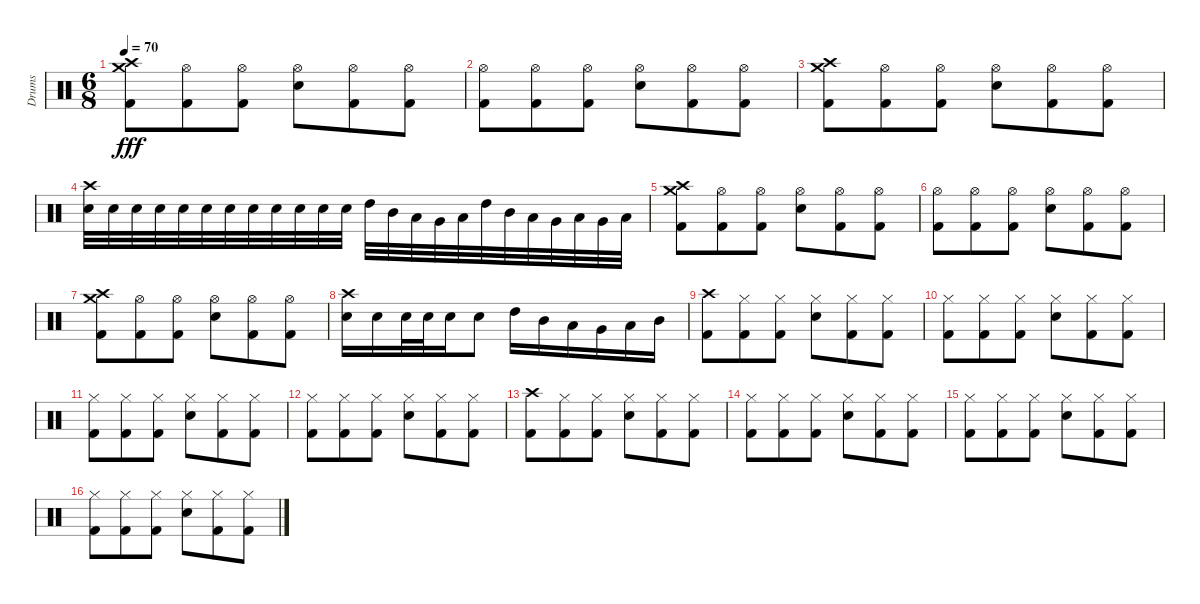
\track ("Drums" "Drums") {instrument percussion}
\staff {score}
\articulation defaults
\ts (6 8)
\tempo 70
\clef neutral
\ks c
("Crash high (hit)" "Crash medium (hit)" "Kick (hit) 2").8{dy fff} ("Hi-Hat (open)" "Kick (hit) 2").8 ("Hi-Hat (open)" "Kick (hit) 2").8 ("Hi-Hat (open)" "Electric Snare (hit)").8 ("Hi-Hat (open)" "Kick (hit) 2").8 ("Hi-Hat (open)" "Kick (hit) 2").8 |
("Hi-Hat (open)" "Kick (hit) 2").8 ("Hi-Hat (open)" "Kick (hit) 2").8 ("Hi-Hat (open)" "Kick (hit) 2").8 ("Hi-Hat (open)" "Electric Snare (hit)").8 ("Hi-Hat (open)" "Kick (hit) 2").8 ("Hi-Hat (open)" "Kick (hit) 2").8 |
("Crash high (hit)" "Crash medium (hit)" "Kick (hit) 2").8 ("Hi-Hat (open)" "Kick (hit) 2").8 ("Hi-Hat (open)" "Kick (hit) 2").8 ("Hi-Hat (open)" "Electric Snare (hit)").8 ("Hi-Hat (open)" "Kick (hit) 2").8 ("Hi-Hat (open)" "Kick (hit) 2").8 |
("Crash high (hit)" "Electric Snare (hit)").32 "Electric Snare (hit)".32 "Electric Snare (hit)".32 "Electric Snare (hit)".32 "Electric Snare (hit)".32 "Electric Snare (hit)".32 "Electric Snare (hit)".32 "Electric Snare (hit)".32 "Electric Snare (hit)".32 "Electric Snare (hit)".32 "Electric Snare (hit)".32 "Electric Snare (hit)".32 "High Tom (hit)".32 "Mid Tom (hit)".32 "Low Tom (hit)".32 "Very Low Tom (hit)".32 "Low Floor Tom (hit)".32 "High Tom (hit)".32 "Mid Tom (hit)".32 "Low Tom (hit)".32 "Very Low Tom (hit)".32 "Low Floor Tom (hit)".32 "Very Low Tom (hit)".32 "Low Tom (hit)".32 |
("Crash high (hit)" "Crash medium (hit)" "Kick (hit) 2").8 ("Hi-Hat (open)" "Kick (hit) 2").8 ("Hi-Hat (open)" "Kick (hit) 2").8 ("Hi-Hat (open)" "Electric Snare (hit)").8 ("Hi-Hat (open)" "Kick (hit) 2").8 ("Hi-Hat (open)" "Kick (hit) 2").8 |
("Hi-Hat (open)" "Kick (hit) 2").8 ("Hi-Hat (open)" "Kick (hit) 2").8 ("Hi-Hat (open)" "Kick (hit) 2").8 ("Hi-Hat (open)" "Electric Snare (hit)").8 ("Hi-Hat (open)" "Kick (hit) 2").8 ("Hi-Hat (open)" "Kick (hit) 2").8 |
("Crash high (hit)" "Crash medium (hit)" "Kick (hit) 2").8 ("Hi-Hat (open)" "Kick (hit) 2").8 ("Hi-Hat (open)" "Kick (hit) 2").8 ("Hi-Hat (open)" "Electric Snare (hit)").8 ("Hi-Hat (open)" "Kick (hit) 2").8 ("Hi-Hat (open)" "Kick (hit) 2").8 |
("Crash high (hit)" "Electric Snare (hit)").16 "Electric Snare (hit)".16 "Electric Snare (hit)".32 "Electric Snare (hit)".32 "Electric Snare (hit)".16 "Electric Snare (hit)".8 "High Tom (hit)".16 "Mid Tom (hit)".16 "Low Tom (hit)".16 "Very Low Tom (hit)".16 "Low Tom (hit)".16 "Mid Tom (hit)".16 |
("Crash high (hit)" "Kick (hit) 2").8 ("Hi-Hat (closed)" "Kick (hit) 2").8 ("Hi-Hat (closed)" "Kick (hit) 2").8 ("Hi-Hat (closed)" "Electric Snare (hit)").8 ("Hi-Hat (closed)" "Kick (hit) 2").8 ("Hi-Hat (closed)" "Kick (hit) 2").8 |
("Hi-Hat (closed)" "Kick (hit) 2").8 ("Hi-Hat (closed)" "Kick (hit) 2").8 ("Hi-Hat (closed)" "Kick (hit) 2").8 ("Hi-Hat (closed)" "Electric Snare (hit)").8 ("Hi-Hat (closed)" "Kick (hit) 2").8 ("Hi-Hat (closed)" "Kick (hit) 2").8 |
("Hi-Hat (closed)" "Kick (hit) 2").8 ("Hi-Hat (closed)" "Kick (hit) 2").8 ("Hi-Hat (closed)" "Kick (hit) 2").8 ("Hi-Hat (closed)" "Electric Snare (hit)").8 ("Hi-Hat (closed)" "Kick (hit) 2").8 ("Hi-Hat (closed)" "Kick (hit) 2").8 |
("Hi-Hat (closed)" "Kick (hit) 2").8 ("Hi-Hat (closed)" "Kick (hit) 2").8 ("Hi-Hat (closed)" "Kick (hit) 2").8 ("Hi-Hat (closed)" "Electric Snare (hit)").8 ("Hi-Hat (closed)" "Kick (hit) 2").8 ("Hi-Hat (closed)" "Kick (hit) 2").8 |
("Crash high (hit)" "Kick (hit) 2").8 ("Hi-Hat (closed)" "Kick (hit) 2").8 ("Hi-Hat (closed)" "Kick (hit) 2").8 ("Hi-Hat (closed)" "Electric Snare (hit)").8 ("Hi-Hat (closed)" "Kick (hit) 2").8 ("Hi-Hat (closed)" "Kick (hit) 2").8 |
("Hi-Hat (closed)" "Kick (hit) 2").8 ("Hi-Hat (closed)" "Kick (hit) 2").8 ("Hi-Hat (closed)" "Kick (hit) 2").8 ("Hi-Hat (closed)" "Electric Snare (hit)").8 ("Hi-Hat (closed)" "Kick (hit) 2").8 ("Hi-Hat (closed)" "Kick (hit) 2").8 |
("Hi-Hat (closed)" "Kick (hit) 2").8 ("Hi-Hat (closed)" "Kick (hit) 2").8 ("Hi-Hat (closed)" "Kick (hit) 2").8 ("Hi-Hat (closed)" "Electric Snare (hit)").8 ("Hi-Hat (closed)" "Kick (hit) 2").8 ("Hi-Hat (closed)" "Kick (hit) 2").8 |
("Hi-Hat (closed)" "Kick (hit) 2").8 ("Hi-Hat (closed)" "Kick (hit) 2").8 ("Hi-Hat (closed)" "Kick (hit) 2").8 ("Hi-Hat (closed)" "Electric Snare (hit)").8 ("Hi-Hat (closed)" "Kick (hit) 2").8 ("Hi-Hat (closed)" "Kick (hit) 2").8
